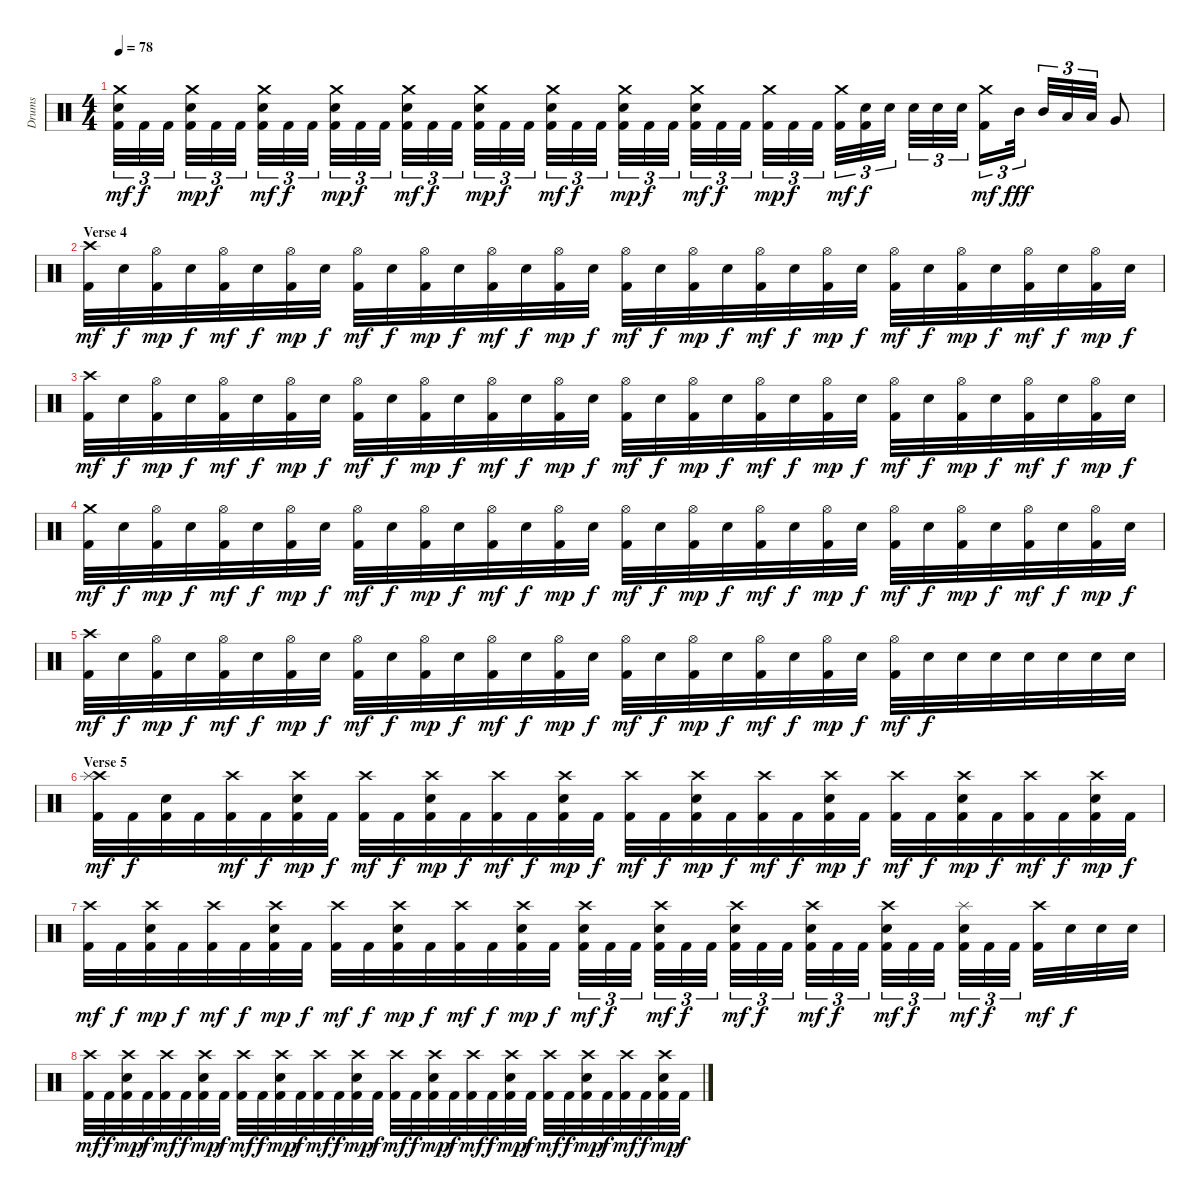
\track ("Drums" "Drums") {instrument percussion}
\staff {score}
\articulation defaults
\ts (4 4)
\tempo 78
\clef neutral
\ks c
("Crash medium (hit)" "Electric Snare (hit)" "Kick (hit) 2").32{tu (3 2) dy mf} "Kick (hit) 2".32{tu (3 2) dy f} "Kick (hit) 2".32{tu (3 2)} ("Crash medium (hit)" "Electric Snare (hit)" "Kick (hit) 2").32{tu (3 2) dy mp} "Kick (hit) 2".32{tu (3 2) dy f} "Kick (hit) 2".32{tu (3 2)} ("Crash medium (hit)" "Electric Snare (hit)" "Kick (hit) 2").32{tu (3 2) dy mf} "Kick (hit) 2".32{tu (3 2) dy f} "Kick (hit) 2".32{tu (3 2)} ("Crash medium (hit)" "Electric Snare (hit)" "Kick (hit) 2").32{tu (3 2) dy mp} "Kick (hit) 2".32{tu (3 2) dy f} "Kick (hit) 2".32{tu (3 2)} ("Crash medium (hit)" "Electric Snare (hit)" "Kick (hit) 2").32{tu (3 2) dy mf} "Kick (hit) 2".32{tu (3 2) dy f} "Kick (hit) 2".32{tu (3 2)} ("Crash medium (hit)" "Electric Snare (hit)" "Kick (hit) 2").32{tu (3 2) dy mp} "Kick (hit) 2".32{tu (3 2) dy f} "Kick (hit) 2".32{tu (3 2)} ("Crash medium (hit)" "Electric Snare (hit)" "Kick (hit) 2").32{tu (3 2) dy mf} "Kick (hit) 2".32{tu (3 2) dy f} "Kick (hit) 2".32{tu (3 2)} ("Crash medium (hit)" "Electric Snare (hit)" "Kick (hit) 2").32{tu (3 2) dy mp} "Kick (hit) 2".32{tu (3 2) dy f} "Kick (hit) 2".32{tu (3 2)} ("Crash medium (hit)" "Electric Snare (hit)" "Kick (hit) 2").32{tu (3 2) dy mf} "Kick (hit) 2".32{tu (3 2) dy f} "Kick (hit) 2".32{tu (3 2)} ("Crash medium (hit)" "Kick (hit) 2").32{tu (3 2) dy mp} "Kick (hit) 2".32{tu (3 2) dy f} "Kick (hit) 2".32{tu (3 2)} ("Crash medium (hit)" "Kick (hit) 2").32{tu (3 2) dy mf} ("Electric Snare (hit)" "Kick (hit) 2").32{tu (3 2) dy f} "Electric Snare (hit)".32{tu (3 2)} "Electric Snare (hit)".32{tu (3 2)} "Electric Snare (hit)".32{tu (3 2)} "Electric Snare (hit)".32{tu (3 2)} ("Crash medium (hit)" "Kick (hit) 2").16{tu (3 2) dy mf} "Mid Tom (hit)".32{tu (3 2) dy fff} "Mid Tom (hit)".32{tu (3 2)} "Low Tom (hit)".32{tu (3 2)} "Low Tom (hit)".32{tu (3 2)} "Very Low Tom (hit)".8 |
\section ("" "Verse 4")
("Crash high (hit)" "Kick (hit) 2").32{dy mf} "Electric Snare (hit)".32{dy f} ("Hi-Hat (open)" "Kick (hit) 2").32{dy mp} "Electric Snare (hit)".32{dy f} ("Hi-Hat (open)" "Kick (hit) 2").32{dy mf} "Electric Snare (hit)".32{dy f} ("Hi-Hat (open)" "Kick (hit) 2").32{dy mp} "Electric Snare (hit)".32{dy f} ("Hi-Hat (open)" "Kick (hit) 2").32{dy mf} "Electric Snare (hit)".32{dy f} ("Hi-Hat (open)" "Kick (hit) 2").32{dy mp} "Electric Snare (hit)".32{dy f} ("Hi-Hat (open)" "Kick (hit) 2").32{dy mf} "Electric Snare (hit)".32{dy f} ("Hi-Hat (open)" "Kick (hit) 2").32{dy mp} "Electric Snare (hit)".32{dy f} ("Hi-Hat (open)" "Kick (hit) 2").32{dy mf} "Electric Snare (hit)".32{dy f} ("Hi-Hat (open)" "Kick (hit) 2").32{dy mp} "Electric Snare (hit)".32{dy f} ("Hi-Hat (open)" "Kick (hit) 2").32{dy mf} "Electric Snare (hit)".32{dy f} ("Hi-Hat (open)" "Kick (hit) 2").32{dy mp} "Electric Snare (hit)".32{dy f} ("Hi-Hat (open)" "Kick (hit) 2").32{dy mf} "Electric Snare (hit)".32{dy f} ("Hi-Hat (open)" "Kick (hit) 2").32{dy mp} "Electric Snare (hit)".32{dy f} ("Hi-Hat (open)" "Kick (hit) 2").32{dy mf} "Electric Snare (hit)".32{dy f} ("Hi-Hat (open)" "Kick (hit) 2").32{dy mp} "Electric Snare (hit)".32{dy f} |
("Crash high (hit)" "Kick (hit) 2").32{dy mf} "Electric Snare (hit)".32{dy f} ("Hi-Hat (open)" "Kick (hit) 2").32{dy mp} "Electric Snare (hit)".32{dy f} ("Hi-Hat (open)" "Kick (hit) 2").32{dy mf} "Electric Snare (hit)".32{dy f} ("Hi-Hat (open)" "Kick (hit) 2").32{dy mp} "Electric Snare (hit)".32{dy f} ("Hi-Hat (open)" "Kick (hit) 2").32{dy mf} "Electric Snare (hit)".32{dy f} ("Hi-Hat (open)" "Kick (hit) 2").32{dy mp} "Electric Snare (hit)".32{dy f} ("Hi-Hat (open)" "Kick (hit) 2").32{dy mf} "Electric Snare (hit)".32{dy f} ("Hi-Hat (open)" "Kick (hit) 2").32{dy mp} "Electric Snare (hit)".32{dy f} ("Hi-Hat (open)" "Kick (hit) 2").32{dy mf} "Electric Snare (hit)".32{dy f} ("Hi-Hat (open)" "Kick (hit) 2").32{dy mp} "Electric Snare (hit)".32{dy f} ("Hi-Hat (open)" "Kick (hit) 2").32{dy mf} "Electric Snare (hit)".32{dy f} ("Hi-Hat (open)" "Kick (hit) 2").32{dy mp} "Electric Snare (hit)".32{dy f} ("Hi-Hat (open)" "Kick (hit) 2").32{dy mf} "Electric Snare (hit)".32{dy f} ("Hi-Hat (open)" "Kick (hit) 2").32{dy mp} "Electric Snare (hit)".32{dy f} ("Hi-Hat (open)" "Kick (hit) 2").32{dy mf} "Electric Snare (hit)".32{dy f} ("Hi-Hat (open)" "Kick (hit) 2").32{dy mp} "Electric Snare (hit)".32{dy f} |
("Crash medium (hit)" "Kick (hit) 2").32{dy mf} "Electric Snare (hit)".32{dy f} ("Hi-Hat (open)" "Kick (hit) 2").32{dy mp} "Electric Snare (hit)".32{dy f} ("Hi-Hat (open)" "Kick (hit) 2").32{dy mf} "Electric Snare (hit)".32{dy f} ("Hi-Hat (open)" "Kick (hit) 2").32{dy mp} "Electric Snare (hit)".32{dy f} ("Hi-Hat (open)" "Kick (hit) 2").32{dy mf} "Electric Snare (hit)".32{dy f} ("Hi-Hat (open)" "Kick (hit) 2").32{dy mp} "Electric Snare (hit)".32{dy f} ("Hi-Hat (open)" "Kick (hit) 2").32{dy mf} "Electric Snare (hit)".32{dy f} ("Hi-Hat (open)" "Kick (hit) 2").32{dy mp} "Electric Snare (hit)".32{dy f} ("Hi-Hat (open)" "Kick (hit) 2").32{dy mf} "Electric Snare (hit)".32{dy f} ("Hi-Hat (open)" "Kick (hit) 2").32{dy mp} "Electric Snare (hit)".32{dy f} ("Hi-Hat (open)" "Kick (hit) 2").32{dy mf} "Electric Snare (hit)".32{dy f} ("Hi-Hat (open)" "Kick (hit) 2").32{dy mp} "Electric Snare (hit)".32{dy f} ("Hi-Hat (open)" "Kick (hit) 2").32{dy mf} "Electric Snare (hit)".32{dy f} ("Hi-Hat (open)" "Kick (hit) 2").32{dy mp} "Electric Snare (hit)".32{dy f} ("Hi-Hat (open)" "Kick (hit) 2").32{dy mf} "Electric Snare (hit)".32{dy f} ("Hi-Hat (open)" "Kick (hit) 2").32{dy mp} "Electric Snare (hit)".32{dy f} |
("Crash high (hit)" "Kick (hit) 2").32{dy mf} "Electric Snare (hit)".32{dy f} ("Hi-Hat (open)" "Kick (hit) 2").32{dy mp} "Electric Snare (hit)".32{dy f} ("Hi-Hat (open)" "Kick (hit) 2").32{dy mf} "Electric Snare (hit)".32{dy f} ("Hi-Hat (open)" "Kick (hit) 2").32{dy mp} "Electric Snare (hit)".32{dy f} ("Hi-Hat (open)" "Kick (hit) 2").32{dy mf} "Electric Snare (hit)".32{dy f} ("Hi-Hat (open)" "Kick (hit) 2").32{dy mp} "Electric Snare (hit)".32{dy f} ("Hi-Hat (open)" "Kick (hit) 2").32{dy mf} "Electric Snare (hit)".32{dy f} ("Hi-Hat (open)" "Kick (hit) 2").32{dy mp} "Electric Snare (hit)".32{dy f} ("Hi-Hat (open)" "Kick (hit) 2").32{dy mf} "Electric Snare (hit)".32{dy f} ("Hi-Hat (open)" "Kick (hit) 2").32{dy mp} "Electric Snare (hit)".32{dy f} ("Hi-Hat (open)" "Kick (hit) 2").32{dy mf} "Electric Snare (hit)".32{dy f} ("Hi-Hat (open)" "Kick (hit) 2").32{dy mp} "Electric Snare (hit)".32{dy f} ("Hi-Hat (open)" "Kick (hit) 2").32{dy mf} "Electric Snare (hit)".32{dy f} "Electric Snare (hit)".32 "Electric Snare (hit)".32 "Electric Snare (hit)".32 "Electric Snare (hit)".32 "Electric Snare (hit)".32 "Electric Snare (hit)".32 |
\section ("" "Verse 5")
("Crash high (hit)" "Splash (hit)" "Kick (hit) 2").32{dy mf} "Kick (hit) 2".32{dy f} ("Electric Snare (hit)" "Kick (hit) 2").32 "Kick (hit) 2".32 ("Crash high (hit)" "Kick (hit) 2").32{dy mf} "Kick (hit) 2".32{dy f} ("Crash high (hit)" "Electric Snare (hit)" "Kick (hit) 2").32{dy mp} "Kick (hit) 2".32{dy f} ("Crash high (hit)" "Kick (hit) 2").32{dy mf} "Kick (hit) 2".32{dy f} ("Crash high (hit)" "Electric Snare (hit)" "Kick (hit) 2").32{dy mp} "Kick (hit) 2".32{dy f} ("Crash high (hit)" "Kick (hit) 2").32{dy mf} "Kick (hit) 2".32{dy f} ("Crash high (hit)" "Electric Snare (hit)" "Kick (hit) 2").32{dy mp} "Kick (hit) 2".32{dy f} ("Crash high (hit)" "Kick (hit) 2").32{dy mf} "Kick (hit) 2".32{dy f} ("Crash high (hit)" "Electric Snare (hit)" "Kick (hit) 2").32{dy mp} "Kick (hit) 2".32{dy f} ("Crash high (hit)" "Kick (hit) 2").32{dy mf} "Kick (hit) 2".32{dy f} ("Crash high (hit)" "Electric Snare (hit)" "Kick (hit) 2").32{dy mp} "Kick (hit) 2".32{dy f} ("Crash high (hit)" "Kick (hit) 2").32{dy mf} "Kick (hit) 2".32{dy f} ("Crash high (hit)" "Electric Snare (hit)" "Kick (hit) 2").32{dy mp} "Kick (hit) 2".32{dy f} ("Crash high (hit)" "Kick (hit) 2").32{dy mf} "Kick (hit) 2".32{dy f} ("Crash high (hit)" "Electric Snare (hit)" "Kick (hit) 2").32{dy mp} "Kick (hit) 2".32{dy f} |
("Crash high (hit)" "Kick (hit) 2").32{dy mf} "Kick (hit) 2".32{dy f} ("Crash high (hit)" "Electric Snare (hit)" "Kick (hit) 2").32{dy mp} "Kick (hit) 2".32{dy f} ("Crash high (hit)" "Kick (hit) 2").32{dy mf} "Kick (hit) 2".32{dy f} ("Crash high (hit)" "Electric Snare (hit)" "Kick (hit) 2").32{dy mp} "Kick (hit) 2".32{dy f} ("Crash high (hit)" "Kick (hit) 2").32{dy mf} "Kick (hit) 2".32{dy f} ("Crash high (hit)" "Electric Snare (hit)" "Kick (hit) 2").32{dy mp} "Kick (hit) 2".32{dy f} ("Crash high (hit)" "Kick (hit) 2").32{dy mf} "Kick (hit) 2".32{dy f} ("Crash high (hit)" "Electric Snare (hit)" "Kick (hit) 2").32{dy mp} "Kick (hit) 2".32{dy f} ("Crash high (hit)" "Electric Snare (hit)" "Kick (hit) 2").32{tu (3 2) dy mf} "Kick (hit) 2".32{tu (3 2) dy f} "Kick (hit) 2".32{tu (3 2)} ("Crash high (hit)" "Electric Snare (hit)" "Kick (hit) 2").32{tu (3 2) dy mf} "Kick (hit) 2".32{tu (3 2) dy f} "Kick (hit) 2".32{tu (3 2)} ("Crash high (hit)" "Electric Snare (hit)" "Kick (hit) 2").32{tu (3 2) dy mf} "Kick (hit) 2".32{tu (3 2) dy f} "Kick (hit) 2".32{tu (3 2)} ("Crash high (hit)" "Electric Snare (hit)" "Kick (hit) 2").32{tu (3 2) dy mf} "Kick (hit) 2".32{tu (3 2) dy f} "Kick (hit) 2".32{tu (3 2)} ("Crash high (hit)" "Electric Snare (hit)" "Kick (hit) 2").32{tu (3 2) dy mf} "Kick (hit) 2".32{tu (3 2) dy f} "Kick (hit) 2".32{tu (3 2)} ("Splash (hit)" "Electric Snare (hit)" "Kick (hit) 2").32{tu (3 2) dy mf} "Kick (hit) 2".32{tu (3 2) dy f} "Kick (hit) 2".32{tu (3 2)} ("Crash high (hit)" "Kick (hit) 2").32{dy mf} "Electric Snare (hit)".32{dy f} "Electric Snare (hit)".32 "Electric Snare (hit)".32 |
("Crash high (hit)" "Kick (hit) 2").32{dy mf} "Kick (hit) 2".32{dy f} ("Crash high (hit)" "Electric Snare (hit)" "Kick (hit) 2").32{dy mp} "Kick (hit) 2".32{dy f} ("Crash high (hit)" "Kick (hit) 2").32{dy mf} "Kick (hit) 2".32{dy f} ("Crash high (hit)" "Electric Snare (hit)" "Kick (hit) 2").32{dy mp} "Kick (hit) 2".32{dy f} ("Crash high (hit)" "Kick (hit) 2").32{dy mf} "Kick (hit) 2".32{dy f} ("Crash high (hit)" "Electric Snare (hit)" "Kick (hit) 2").32{dy mp} "Kick (hit) 2".32{dy f} ("Crash high (hit)" "Kick (hit) 2").32{dy mf} "Kick (hit) 2".32{dy f} ("Crash high (hit)" "Electric Snare (hit)" "Kick (hit) 2").32{dy mp} "Kick (hit) 2".32{dy f} ("Crash high (hit)" "Kick (hit) 2").32{dy mf} "Kick (hit) 2".32{dy f} ("Crash high (hit)" "Electric Snare (hit)" "Kick (hit) 2").32{dy mp} "Kick (hit) 2".32{dy f} ("Crash high (hit)" "Kick (hit) 2").32{dy mf} "Kick (hit) 2".32{dy f} ("Crash high (hit)" "Electric Snare (hit)" "Kick (hit) 2").32{dy mp} "Kick (hit) 2".32{dy f} ("Crash high (hit)" "Kick (hit) 2").32{dy mf} "Kick (hit) 2".32{dy f} ("Crash high (hit)" "Electric Snare (hit)" "Kick (hit) 2").32{dy mp} "Kick (hit) 2".32{dy f} ("Crash high (hit)" "Kick (hit) 2").32{dy mf} "Kick (hit) 2".32{dy f} ("Crash high (hit)" "Electric Snare (hit)" "Kick (hit) 2").32{dy mp} "Kick (hit) 2".32{dy f}
